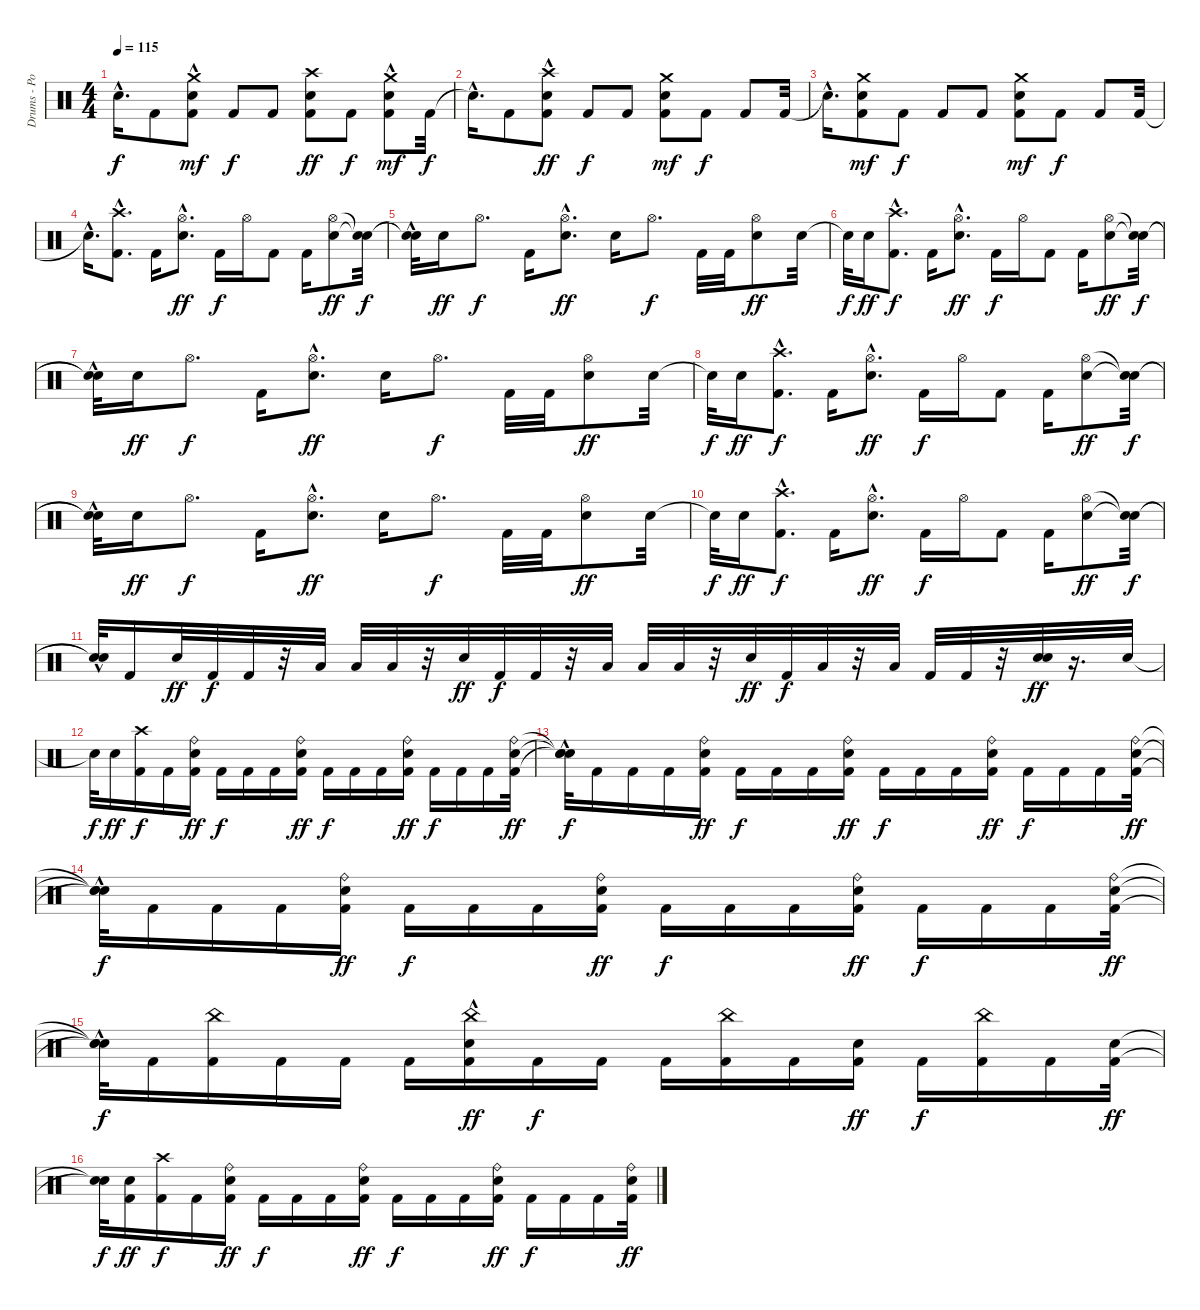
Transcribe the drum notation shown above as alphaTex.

\track ("Drums - Portnoy" "Drums - Po") {instrument percussion}
\staff {score}
\articulation defaults
\ts (4 4)
\tempo 115
\clef neutral
\ks c "Snare (hit)"{hac t}.16{d dy f} "Kick (hit) 2".8
("Kick (hit) 2" "Electric Snare (hit)"{hac} "Crash medium (hit)"{hac}).8{dy mf} "Kick (hit) 2".8{dy f} "Kick (hit) 2".8 ("Kick (hit) 2" "Crash high (hit)" "Electric Snare (hit)").8{dy ff} "Kick (hit) 2".8{dy f} ("Kick (hit) 2" "Electric Snare (hit)"{hac} "Crash medium (hit)"{hac}).8{dy mf} "Kick (hit) 2".32{dy f} |
"Snare (hit)"{hac t}.16{d} "Kick (hit) 2".8 ("Kick (hit) 2" "Crash high (hit)"{hac} "Electric Snare (hit)"{hac}).8{dy ff} "Kick (hit) 2".8{dy f} "Kick (hit) 2".8 ("Kick (hit) 2" "Electric Snare (hit)" "Crash medium (hit)").8{dy mf} "Kick (hit) 2".8{dy f} "Kick (hit) 2".8 "Kick (hit) 2".32 |
"Snare (hit)"{hac t}.16{d} ("Kick (hit) 2" "Electric Snare (hit)" "Crash medium (hit)").8{dy mf} "Kick (hit) 2".8{dy f} "Kick (hit) 2".8 "Kick (hit) 2".8 ("Kick (hit) 2" "Electric Snare (hit)" "Crash medium (hit)").8{dy mf} "Kick (hit) 2".8{dy f} "Kick (hit) 2".8 "Kick (hit) 2".32 |
"Snare (hit)"{hac t}.16{d} ("Crash high (hit)" "Kick (hit) 2"{hac}).8{d} "Kick (hit) 2".16 ("Hi-Hat (open)" "Electric Snare (hit)"{hac}).8{d dy ff} "Kick (hit) 2".16{dy f} "Hi-Hat (open)".16 "Kick (hit) 2".8 "Kick (hit) 2".16 ("Hi-Hat (open)" "Electric Snare (hit)").8{dy ff} ("Snare (hit)"{t} "Snare (hit)"{t}).32{dy f} |
("Snare (hit)"{hac t} "Snare (hit)"{t}).32 "Electric Snare (hit)".16{dy ff} "Hi-Hat (open)".8{d dy f} "Kick (hit) 2".16 ("Hi-Hat (open)" "Electric Snare (hit)"{hac}).8{d dy ff} "Electric Snare (hit)".16 "Hi-Hat (open)".8{d dy f} "Kick (hit) 2".32 "Kick (hit) 2".32 ("Hi-Hat (open)" "Electric Snare (hit)").8{dy ff} "Electric Snare (hit)".32 |
"Snare (hit)"{t}.32{dy f} "Electric Snare (hit)".16{dy ff} ("Kick (hit) 2"{hac} "Crash high (hit)").8{d dy f} "Kick (hit) 2".16 ("Hi-Hat (open)" "Electric Snare (hit)"{hac}).8{d dy ff} "Kick (hit) 2".16{dy f} "Hi-Hat (open)".16 "Kick (hit) 2".8 "Kick (hit) 2".16 ("Hi-Hat (open)" "Electric Snare (hit)").8{dy ff} ("Snare (hit)"{t} "Snare (hit)"{t}).32{dy f} |
("Snare (hit)"{hac t} "Snare (hit)"{t}).32 "Electric Snare (hit)".16{dy ff} "Hi-Hat (open)".8{d dy f} "Kick (hit) 2".16 ("Hi-Hat (open)" "Electric Snare (hit)"{hac}).8{d dy ff} "Electric Snare (hit)".16 "Hi-Hat (open)".8{d dy f} "Kick (hit) 2".32 "Kick (hit) 2".32 ("Hi-Hat (open)" "Electric Snare (hit)").8{dy ff} "Electric Snare (hit)".32 |
"Snare (hit)"{t}.32{dy f} "Electric Snare (hit)".16{dy ff} ("Crash high (hit)" "Kick (hit) 2"{hac}).8{d dy f} "Kick (hit) 2".16 ("Hi-Hat (open)" "Electric Snare (hit)"{hac}).8{d dy ff} "Kick (hit) 2".16{dy f} "Hi-Hat (open)".16 "Kick (hit) 2".8 "Kick (hit) 2".16 ("Hi-Hat (open)" "Electric Snare (hit)").8{dy ff} ("Snare (hit)"{t} "Snare (hit)"{t}).32{dy f} |
("Snare (hit)"{hac t} "Snare (hit)"{t}).32 "Electric Snare (hit)".16{dy ff} "Hi-Hat (open)".8{d dy f} "Kick (hit) 2".16 ("Hi-Hat (open)" "Electric Snare (hit)"{hac}).8{d dy ff} "Electric Snare (hit)".16 "Hi-Hat (open)".8{d dy f} "Kick (hit) 2".32 "Kick (hit) 2".32 ("Hi-Hat (open)" "Electric Snare (hit)").8{dy ff} "Electric Snare (hit)".32 |
"Snare (hit)"{t}.32{dy f} "Electric Snare (hit)".16{dy ff} ("Kick (hit) 2"{hac} "Crash high (hit)").8{d dy f} "Kick (hit) 2".16 ("Hi-Hat (open)" "Electric Snare (hit)"{hac}).8{d dy ff} "Kick (hit) 2".16{dy f} "Hi-Hat (open)".16 "Kick (hit) 2".8 "Kick (hit) 2".16 ("Hi-Hat (open)" "Electric Snare (hit)").8{dy ff} ("Snare (hit)"{t} "Snare (hit)"{t}).32{dy f} |
("Snare (hit)"{hac t} "Snare (hit)"{t}).32 "Kick (hit) 2".16 "Electric Snare (hit)".32{dy ff} "Kick (hit) 2".32{dy f} "Kick (hit) 2".32 r.32 "Low Tom (hit)".32 "Low Tom (hit)".32 "Low Tom (hit)".32 r.32 "Electric Snare (hit)".32{dy ff} "Kick (hit) 2".32{dy f} "Kick (hit) 2".32 r.32 "Low Tom (hit)".32 "Low Tom (hit)".32 "Low Tom (hit)".32 r.32 "Electric Snare (hit)".32{dy ff} "Kick (hit) 2".32{dy f} "Low Tom (hit)".32 r.32 "Low Tom (hit)".32 "Kick (hit) 2".32 "Kick (hit) 2".32 r.32 ("Electric Snare (hit)" "Electric Snare (hit)").32{dy ff} r.16{d} "Electric Snare (hit)".32 |
"Snare (hit)"{t}.32{dy f} "Electric Snare (hit)".16{dy ff} ("Kick (hit) 2" "Crash high (hit)").16{dy f} "Kick (hit) 2".16 ("Kick (hit) 2" "Ride (bell)" "Electric Snare (hit)").16{dy ff} "Kick (hit) 2".16{dy f} "Kick (hit) 2".16 "Kick (hit) 2".16 ("Kick (hit) 2" "Ride (bell)" "Electric Snare (hit)").16{dy ff} "Kick (hit) 2".16{dy f} "Kick (hit) 2".16 "Kick (hit) 2".16 ("Kick (hit) 2" "Ride (bell)" "Electric Snare (hit)").16{dy ff} "Kick (hit) 2".16{dy f} "Kick (hit) 2".16 "Kick (hit) 2".16 ("Kick (hit) 2" "Ride (bell)" "Electric Snare (hit)").32{dy ff} |
("Snare (hit)"{t} "Snare (hit)"{hac t} "Snare (hit)"{hac t}).32{dy f} "Kick (hit) 2".16 "Kick (hit) 2".16 "Kick (hit) 2".16 ("Kick (hit) 2" "Ride (bell)" "Electric Snare (hit)").16{dy ff} "Kick (hit) 2".16{dy f} "Kick (hit) 2".16 "Kick (hit) 2".16 ("Kick (hit) 2" "Ride (bell)" "Electric Snare (hit)").16{dy ff} "Kick (hit) 2".16{dy f} "Kick (hit) 2".16 "Kick (hit) 2".16 ("Kick (hit) 2" "Ride (bell)" "Electric Snare (hit)").16{dy ff} "Kick (hit) 2".16{dy f} "Kick (hit) 2".16 "Kick (hit) 2".16 ("Kick (hit) 2" "Ride (bell)" "Electric Snare (hit)").32{dy ff} |
("Snare (hit)"{t} "Snare (hit)"{hac t} "Snare (hit)"{hac t}).32{dy f} "Kick (hit) 2".16 "Kick (hit) 2".16 "Kick (hit) 2".16 ("Kick (hit) 2" "Ride (bell)" "Electric Snare (hit)").16{dy ff} "Kick (hit) 2".16{dy f} "Kick (hit) 2".16 "Kick (hit) 2".16 ("Kick (hit) 2" "Ride (bell)" "Electric Snare (hit)").16{dy ff} "Kick (hit) 2".16{dy f} "Kick (hit) 2".16 "Kick (hit) 2".16 ("Kick (hit) 2" "Ride (bell)" "Electric Snare (hit)").16{dy ff} "Kick (hit) 2".16{dy f} "Kick (hit) 2".16 "Kick (hit) 2".16 ("Kick (hit) 2" "Ride (bell)" "Electric Snare (hit)").32{dy ff} |
("Snare (hit)"{t} "Snare (hit)"{hac t} "Snare (hit)"{hac t}).32{dy f} "Kick (hit) 2".16 ("Kick (hit) 2" "China (hit)").16 "Kick (hit) 2".16 "Kick (hit) 2".16 "Kick (hit) 2".16 ("Kick (hit) 2" "Electric Snare (hit)"{hac} "China (hit)").16{dy ff} "Kick (hit) 2".16{dy f} "Kick (hit) 2".16 "Kick (hit) 2".16 ("Kick (hit) 2" "China (hit)").16 "Kick (hit) 2".16 ("Kick (hit) 2" "Electric Snare (hit)").16{dy ff} "Kick (hit) 2".16{dy f} ("Kick (hit) 2" "China (hit)").16 "Kick (hit) 2".16 ("Kick (hit) 2" "Electric Snare (hit)").32{dy ff} |
("Snare (hit)"{t} "Snare (hit)"{t}).32{dy f} ("Kick (hit) 2" "Electric Snare (hit)").16{dy ff} ("Crash high (hit)" "Kick (hit) 2").16{dy f} "Kick (hit) 2".16 ("Kick (hit) 2" "Ride (bell)" "Electric Snare (hit)").16{dy ff} "Kick (hit) 2".16{dy f} "Kick (hit) 2".16 "Kick (hit) 2".16 ("Kick (hit) 2" "Ride (bell)" "Electric Snare (hit)").16{dy ff} "Kick (hit) 2".16{dy f} "Kick (hit) 2".16 "Kick (hit) 2".16 ("Kick (hit) 2" "Ride (bell)" "Electric Snare (hit)").16{dy ff} "Kick (hit) 2".16{dy f} "Kick (hit) 2".16 "Kick (hit) 2".16 ("Kick (hit) 2" "Ride (bell)" "Electric Snare (hit)").32{dy ff}
